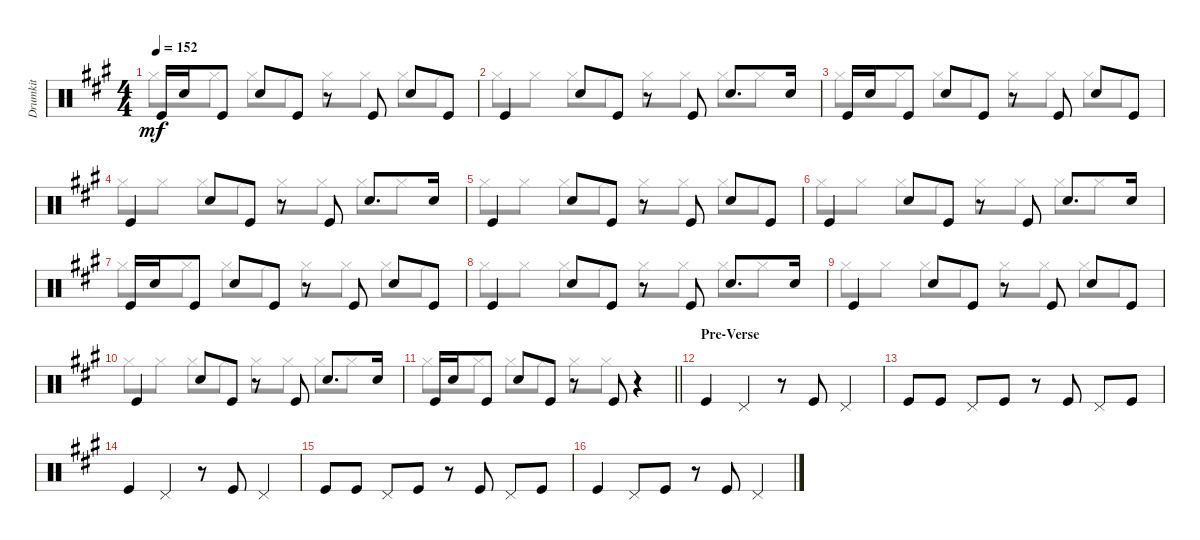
\track ("Drumkit" "Drumkit") {instrument percussion}
\staff {score}
\articulation defaults
\voice
\ts (4 4)
\tempo 152
\clef neutral
\ks a "Kick (hit)".16{dy mf} "Snare (hit) 2".16 "Kick (hit)".8 "Snare (hit) 2".8 "Kick (hit)".8
r.8 "Kick (hit)".8 "Snare (hit) 2".8 "Kick (hit)".8 |
"Kick (hit)".4 "Snare (hit) 2".8 "Kick (hit)".8 r.8 "Kick (hit)".8 "Snare (hit) 2".8{d} "Snare (hit) 2".16 |
"Kick (hit)".16 "Snare (hit) 2".16 "Kick (hit)".8 "Snare (hit) 2".8 "Kick (hit)".8 r.8 "Kick (hit)".8 "Snare (hit) 2".8 "Kick (hit)".8 |
"Kick (hit)".4 "Snare (hit) 2".8 "Kick (hit)".8 r.8 "Kick (hit)".8 "Snare (hit) 2".8{d} "Snare (hit) 2".16 |
"Kick (hit)".4 "Snare (hit) 2".8 "Kick (hit)".8 r.8 "Kick (hit)".8 "Snare (hit) 2".8 "Kick (hit)".8 |
"Kick (hit)".4 "Snare (hit) 2".8 "Kick (hit)".8 r.8 "Kick (hit)".8 "Snare (hit) 2".8{d} "Snare (hit) 2".16 |
"Kick (hit)".16 "Snare (hit) 2".16 "Kick (hit)".8 "Snare (hit) 2".8 "Kick (hit)".8 r.8 "Kick (hit)".8 "Snare (hit) 2".8 "Kick (hit)".8 |
"Kick (hit)".4 "Snare (hit) 2".8 "Kick (hit)".8 r.8 "Kick (hit)".8 "Snare (hit) 2".8{d} "Snare (hit) 2".16 |
"Kick (hit)".4 "Snare (hit) 2".8 "Kick (hit)".8 r.8 "Kick (hit)".8 "Snare (hit) 2".8 "Kick (hit)".8 |
"Kick (hit)".4 "Snare (hit) 2".8 "Kick (hit)".8 r.8 "Kick (hit)".8 "Snare (hit) 2".8{d} "Snare (hit) 2".16 |
\barLineRight lightlight "Kick (hit)".16 "Snare (hit) 2".16 "Kick (hit)".8 "Snare (hit) 2".8 "Kick (hit)".8
r.8 "Kick (hit)".8 r.4 |
\section ("" "Pre-Verse")
"Kick (hit)".4 "Pedal Hi-Hat (hit)".4 r.8 "Kick (hit)".8 "Pedal Hi-Hat (hit)".4 |
"Kick (hit)".8 "Kick (hit)".8 "Pedal Hi-Hat (hit)".8 "Kick (hit)".8 r.8 "Kick (hit)".8 "Pedal Hi-Hat (hit)".8 "Kick (hit)".8 |
"Kick (hit)".4 "Pedal Hi-Hat (hit)".4 r.8 "Kick (hit)".8 "Pedal Hi-Hat (hit)".4 |
"Kick (hit)".8 "Kick (hit)".8 "Pedal Hi-Hat (hit)".8 "Kick (hit)".8 r.8 "Kick (hit)".8 "Pedal Hi-Hat (hit)".8 "Kick (hit)".8 |
"Kick (hit)".4 "Pedal Hi-Hat (hit)".8 "Kick (hit)".8 r.8 "Kick (hit)".8 "Pedal Hi-Hat (hit)".4
\voice
\clef neutral
\ottava regular
\simile none
\ks a "Hi-Hat (closed)".8{dy mf} "Hi-Hat (closed)".8 "Hi-Hat (closed)".8 "Hi-Hat (closed)".8 "Hi-Hat (closed)".8 "Hi-Hat (closed)".8 "Hi-Hat (closed)".8 "Hi-Hat (closed)".8
|
"Hi-Hat (closed)".8 "Hi-Hat (closed)".8 "Hi-Hat (closed)".8 "Hi-Hat (closed)".8 "Hi-Hat (closed)".8 "Hi-Hat (closed)".8 "Hi-Hat (closed)".8 "Hi-Hat (closed)".8 |
"Hi-Hat (closed)".8 "Hi-Hat (closed)".8 "Hi-Hat (closed)".8 "Hi-Hat (closed)".8 "Hi-Hat (closed)".8 "Hi-Hat (closed)".8 "Hi-Hat (closed)".8 "Hi-Hat (closed)".8 |
"Hi-Hat (closed)".8 "Hi-Hat (closed)".8 "Hi-Hat (closed)".8 "Hi-Hat (closed)".8 "Hi-Hat (closed)".8 "Hi-Hat (closed)".8 "Hi-Hat (closed)".8 "Hi-Hat (closed)".8 |
"Hi-Hat (closed)".8 "Hi-Hat (closed)".8 "Hi-Hat (closed)".8 "Hi-Hat (closed)".8 "Hi-Hat (closed)".8 "Hi-Hat (closed)".8 "Hi-Hat (closed)".8 "Hi-Hat (closed)".8 |
"Hi-Hat (closed)".8 "Hi-Hat (closed)".8 "Hi-Hat (closed)".8 "Hi-Hat (closed)".8 "Hi-Hat (closed)".8 "Hi-Hat (closed)".8 "Hi-Hat (closed)".8 "Hi-Hat (closed)".8 |
"Hi-Hat (closed)".8 "Hi-Hat (closed)".8 "Hi-Hat (closed)".8 "Hi-Hat (closed)".8 "Hi-Hat (closed)".8 "Hi-Hat (closed)".8 "Hi-Hat (closed)".8 "Hi-Hat (closed)".8 |
"Hi-Hat (closed)".8 "Hi-Hat (closed)".8 "Hi-Hat (closed)".8 "Hi-Hat (closed)".8 "Hi-Hat (closed)".8 "Hi-Hat (closed)".8 "Hi-Hat (closed)".8 "Hi-Hat (closed)".8 |
"Hi-Hat (closed)".8 "Hi-Hat (closed)".8 "Hi-Hat (closed)".8 "Hi-Hat (closed)".8 "Hi-Hat (closed)".8 "Hi-Hat (closed)".8 "Hi-Hat (closed)".8 "Hi-Hat (closed)".8 |
"Hi-Hat (closed)".8 "Hi-Hat (closed)".8 "Hi-Hat (closed)".8 "Hi-Hat (closed)".8 "Hi-Hat (closed)".8 "Hi-Hat (closed)".8 "Hi-Hat (closed)".8 "Hi-Hat (closed)".8 |
\barLineRight lightlight "Hi-Hat (closed)".8 "Hi-Hat (closed)".8 "Hi-Hat (closed)".8 "Hi-Hat (closed)".8 "Hi-Hat (closed)".8 "Hi-Hat (closed)".8
r.4 |
|
|
|
|
